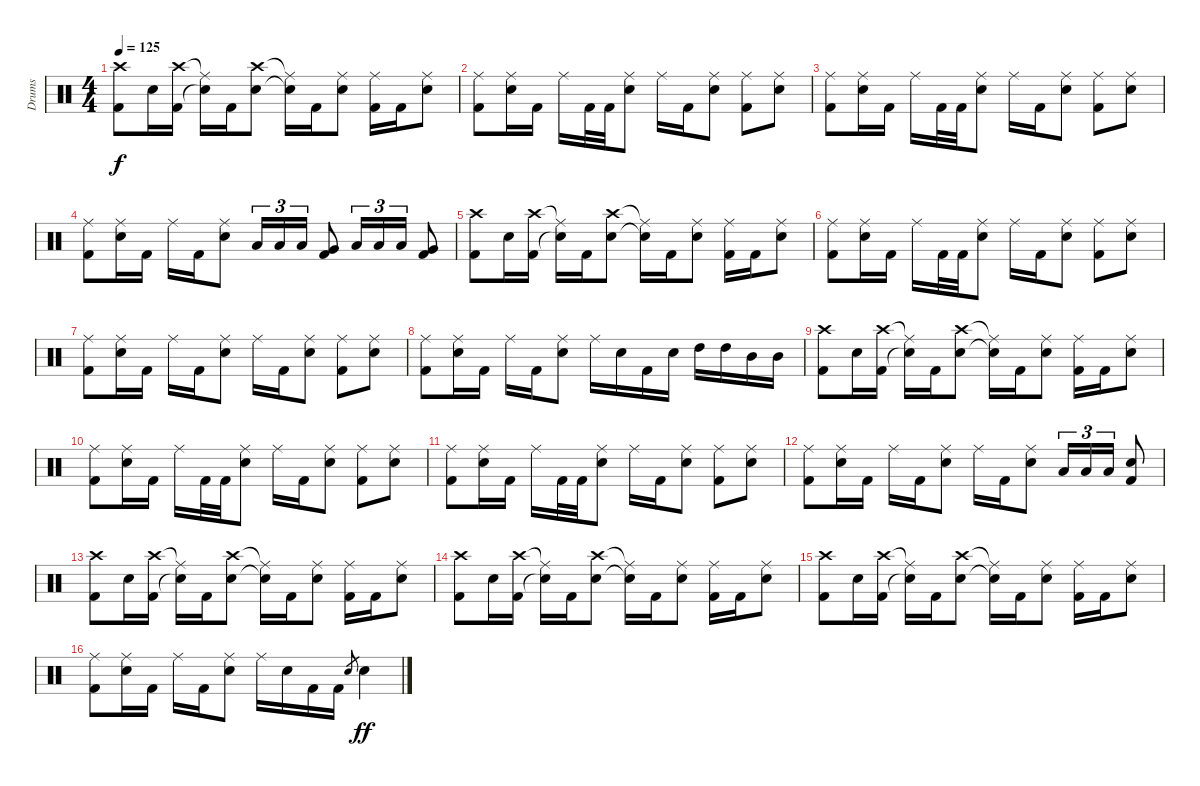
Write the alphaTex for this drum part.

\track ("Drums" "Drums") {instrument percussion}
\staff {score}
\articulation defaults
\ts (4 4)
\tempo 125
\clef neutral
\ks c
("Crash high (hit)" "Kick (hit) 2").8{dy f} "Electric Snare (hit)".16 ("Crash high (hit)" "Kick (hit) 2").16 ("Ride (middle)"{t} "Snare (hit)"{t}).16 "Kick (hit) 2".16 ("Crash high (hit)" "Electric Snare (hit)").8 ("Ride (middle)"{t} "Snare (hit)"{t}).16 "Kick (hit) 2".16 ("Ride (middle)" "Electric Snare (hit)").8 ("Ride (middle)" "Kick (hit) 2").16 "Kick (hit) 2".16 ("Ride (middle)" "Electric Snare (hit)").8 |
("Ride (middle)" "Kick (hit) 2").8 ("Ride (middle)" "Electric Snare (hit)").16 "Kick (hit) 2".16 "Ride (middle)".16 "Kick (hit) 2".32 "Kick (hit) 2".32 ("Ride (middle)" "Electric Snare (hit)").8 "Ride (middle)".16 "Kick (hit) 2".16 ("Ride (middle)" "Electric Snare (hit)").8 ("Ride (middle)" "Kick (hit) 2").8 ("Ride (middle)" "Electric Snare (hit)").8 |
("Ride (middle)" "Kick (hit) 2").8 ("Ride (middle)" "Electric Snare (hit)").16 "Kick (hit) 2".16 "Ride (middle)".16 "Kick (hit) 2".32 "Kick (hit) 2".32 ("Ride (middle)" "Electric Snare (hit)").8 "Ride (middle)".16 "Kick (hit) 2".16 ("Ride (middle)" "Electric Snare (hit)").8 ("Ride (middle)" "Kick (hit) 2").8 ("Ride (middle)" "Electric Snare (hit)").8 |
("Ride (middle)" "Kick (hit) 2").8 ("Ride (middle)" "Electric Snare (hit)").16 "Kick (hit) 2".16 "Ride (middle)".16 "Kick (hit) 2".16 ("Ride (middle)" "Electric Snare (hit)").8 "Low Tom (hit)".16{tu (3 2)} "Low Tom (hit)".16{tu (3 2)} "Low Tom (hit)".16{tu (3 2)} ("Very Low Tom (hit)" "Kick (hit) 2").8 "Low Tom (hit)".16{tu (3 2)} "Low Tom (hit)".16{tu (3 2)} "Low Tom (hit)".16{tu (3 2)} ("Very Low Tom (hit)" "Kick (hit) 2").8 |
("Crash high (hit)" "Kick (hit) 2").8 "Electric Snare (hit)".16 ("Crash high (hit)" "Kick (hit) 2").16 ("Ride (middle)"{t} "Snare (hit)"{t}).16 "Kick (hit) 2".16 ("Crash high (hit)" "Electric Snare (hit)").8 ("Ride (middle)"{t} "Snare (hit)"{t}).16 "Kick (hit) 2".16 ("Ride (middle)" "Electric Snare (hit)").8 ("Ride (middle)" "Kick (hit) 2").16 "Kick (hit) 2".16 ("Ride (middle)" "Electric Snare (hit)").8 |
("Ride (middle)" "Kick (hit) 2").8 ("Ride (middle)" "Electric Snare (hit)").16 "Kick (hit) 2".16 "Ride (middle)".16 "Kick (hit) 2".32 "Kick (hit) 2".32 ("Ride (middle)" "Electric Snare (hit)").8 "Ride (middle)".16 "Kick (hit) 2".16 ("Ride (middle)" "Electric Snare (hit)").8 ("Ride (middle)" "Kick (hit) 2").8 ("Ride (middle)" "Electric Snare (hit)").8 |
("Ride (middle)" "Kick (hit) 2").8 ("Ride (middle)" "Electric Snare (hit)").16 "Kick (hit) 2".16 "Ride (middle)".16 "Kick (hit) 2".16 ("Ride (middle)" "Electric Snare (hit)").8 "Ride (middle)".16 "Kick (hit) 2".16 ("Ride (middle)" "Electric Snare (hit)").8 ("Ride (middle)" "Kick (hit) 2").8 ("Ride (middle)" "Electric Snare (hit)").8 |
("Ride (middle)" "Kick (hit) 2").8 ("Ride (middle)" "Electric Snare (hit)").16 "Kick (hit) 2".16 "Ride (middle)".16 "Kick (hit) 2".16 ("Ride (middle)" "Electric Snare (hit)").8 "Ride (middle)".16 "Electric Snare (hit)".16 "Kick (hit) 2".16 "Electric Snare (hit)".16 "High Tom (hit)".16 "High Tom (hit)".16 "Mid Tom (hit)".16 "Mid Tom (hit)".16 |
("Crash high (hit)" "Kick (hit) 2").8 "Electric Snare (hit)".16 ("Crash high (hit)" "Kick (hit) 2").16 ("Ride (middle)"{t} "Snare (hit)"{t}).16 "Kick (hit) 2".16 ("Crash high (hit)" "Electric Snare (hit)").8 ("Ride (middle)"{t} "Snare (hit)"{t}).16 "Kick (hit) 2".16 ("Ride (middle)" "Electric Snare (hit)").8 ("Ride (middle)" "Kick (hit) 2").16 "Kick (hit) 2".16 ("Ride (middle)" "Electric Snare (hit)").8 |
("Ride (middle)" "Kick (hit) 2").8 ("Ride (middle)" "Electric Snare (hit)").16 "Kick (hit) 2".16 "Ride (middle)".16 "Kick (hit) 2".32 "Kick (hit) 2".32 ("Ride (middle)" "Electric Snare (hit)").8 "Ride (middle)".16 "Kick (hit) 2".16 ("Ride (middle)" "Electric Snare (hit)").8 ("Ride (middle)" "Kick (hit) 2").8 ("Ride (middle)" "Electric Snare (hit)").8 |
("Ride (middle)" "Kick (hit) 2").8 ("Ride (middle)" "Electric Snare (hit)").16 "Kick (hit) 2".16 "Ride (middle)".16 "Kick (hit) 2".32 "Kick (hit) 2".32 ("Ride (middle)" "Electric Snare (hit)").8 "Ride (middle)".16 "Kick (hit) 2".16 ("Ride (middle)" "Electric Snare (hit)").8 ("Ride (middle)" "Kick (hit) 2").8 ("Ride (middle)" "Electric Snare (hit)").8 |
("Ride (middle)" "Kick (hit) 2").8 ("Ride (middle)" "Electric Snare (hit)").16 "Kick (hit) 2".16 "Ride (middle)".16 "Kick (hit) 2".16 ("Ride (middle)" "Electric Snare (hit)").8 "Ride (middle)".16 "Kick (hit) 2".16 ("Ride (middle)" "Electric Snare (hit)").8 "Low Tom (hit)".16{tu (3 2)} "Low Tom (hit)".16{tu (3 2)} "Low Tom (hit)".16{tu (3 2)} ("Electric Snare (hit)" "Kick (hit) 2").8 |
("Crash high (hit)" "Kick (hit) 2").8 "Electric Snare (hit)".16 ("Crash high (hit)" "Kick (hit) 2").16 ("Ride (middle)"{t} "Snare (hit)"{t}).16 "Kick (hit) 2".16 ("Crash high (hit)" "Electric Snare (hit)").8 ("Ride (middle)"{t} "Snare (hit)"{t}).16 "Kick (hit) 2".16 ("Ride (middle)" "Electric Snare (hit)").8 ("Ride (middle)" "Kick (hit) 2").16 "Kick (hit) 2".16 ("Ride (middle)" "Electric Snare (hit)").8 |
("Crash high (hit)" "Kick (hit) 2").8 "Electric Snare (hit)".16 ("Crash high (hit)" "Kick (hit) 2").16 ("Ride (middle)"{t} "Snare (hit)"{t}).16 "Kick (hit) 2".16 ("Crash high (hit)" "Electric Snare (hit)").8 ("Ride (middle)"{t} "Snare (hit)"{t}).16 "Kick (hit) 2".16 ("Ride (middle)" "Electric Snare (hit)").8 ("Ride (middle)" "Kick (hit) 2").16 "Kick (hit) 2".16 ("Ride (middle)" "Electric Snare (hit)").8 |
("Crash high (hit)" "Kick (hit) 2").8 "Electric Snare (hit)".16 ("Crash high (hit)" "Kick (hit) 2").16 ("Ride (middle)"{t} "Snare (hit)"{t}).16 "Kick (hit) 2".16 ("Crash high (hit)" "Electric Snare (hit)").8 ("Ride (middle)"{t} "Snare (hit)"{t}).16 "Kick (hit) 2".16 ("Ride (middle)" "Electric Snare (hit)").8 ("Ride (middle)" "Kick (hit) 2").16 "Kick (hit) 2".16 ("Ride (middle)" "Electric Snare (hit)").8 |
("Ride (middle)" "Kick (hit) 2").8 ("Ride (middle)" "Electric Snare (hit)").16 "Kick (hit) 2".16 "Ride (middle)".16 "Kick (hit) 2".16 ("Ride (middle)" "Electric Snare (hit)").8 "Ride (middle)".16 "Electric Snare (hit)".16 "Kick (hit) 2".16 "Kick (hit) 2".16 "Electric Snare (hit)".8{gr} "Electric Snare (hit)".4{dy ff}
